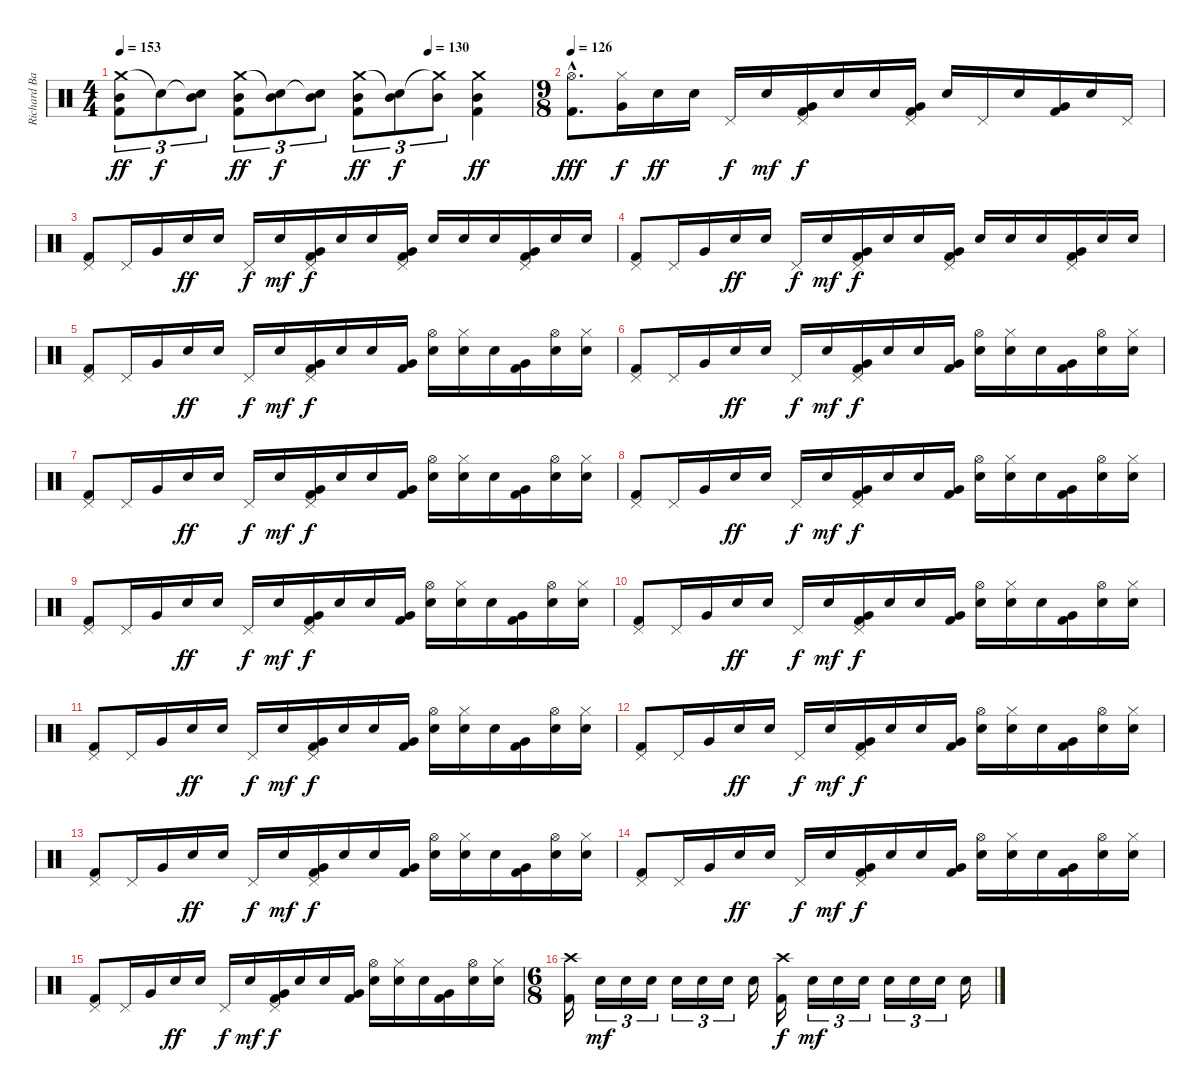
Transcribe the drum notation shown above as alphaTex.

\track ("Richard Bailey" "Richard Ba") {instrument percussion}
\staff {score}
\articulation defaults
\ts (4 4)
\tempo 153
\tempo (130 0.75)
\clef neutral
\ks c
("Crash medium (hit)" "Mid Tom (hit)" "Kick (hit) 2").8{tu (3 2) dy ff} "Snare (hit)"{t}.8{tu (3 2) dy f} ("Snare (hit)"{t} "Mid Tom (hit)").8{tu (3 2)} ("Crash medium (hit)" "Mid Tom (hit)" "Kick (hit) 2").8{tu (3 2) dy ff} ("Snare (hit)"{t} "Mid Tom (hit)").8{tu (3 2) dy f} ("Snare (hit)"{t} "Mid Tom (hit)").8{tu (3 2)} ("Crash medium (hit)" "Mid Tom (hit)" "Kick (hit) 2").8{tu (3 2) dy ff} ("Snare (hit)"{t} "Mid Tom (hit)").8{tu (3 2) dy f} ("Crash medium (hit)"{t} "Mid Tom (hit)").8{tu (3 2)} ("Crash medium (hit)" "Mid Tom (hit)" "Kick (hit) 2").4{dy ff} |
\ts (9 8)
\tempo 126
("Hi-Hat (open)"{hac} "Kick (hit) 2"{hac}).8{d dy fff} ("Hi-Hat (closed)" "Very Low Tom (hit)").16{dy f} "Electric Snare (hit)".16{dy ff} "Electric Snare (hit)".16 "Pedal Hi-Hat (hit)".16{dy f} "Snare (hit) 2".16{dy mf} ("Pedal Hi-Hat (hit)" "Very Low Tom (hit)" "Kick (hit) 2").16{dy f} "Snare (hit) 2".16 "Snare (hit) 2".16 ("Pedal Hi-Hat (hit)" "Very Low Tom (hit)" "Kick (hit) 2").16 "Snare (hit) 2".16 "Pedal Hi-Hat (hit)".16 "Snare (hit) 2".16 ("Very Low Tom (hit)" "Kick (hit) 2").16 "Electric Snare (hit)".16 "Pedal Hi-Hat (hit)".16 |
("Pedal Hi-Hat (hit)" "Kick (hit) 2").8 "Pedal Hi-Hat (hit)".16 "Very Low Tom (hit)".16 "Electric Snare (hit)".16{dy ff} "Electric Snare (hit)".16 "Pedal Hi-Hat (hit)".16{dy f} "Snare (hit) 2".16{dy mf} ("Pedal Hi-Hat (hit)" "Very Low Tom (hit)" "Kick (hit) 2").16{dy f} "Snare (hit) 2".16 "Snare (hit) 2".16 ("Pedal Hi-Hat (hit)" "Very Low Tom (hit)" "Kick (hit) 2").16 "Snare (hit) 2".16 "Snare (hit) 2".16 "Snare (hit) 2".16 ("Pedal Hi-Hat (hit)" "Very Low Tom (hit)" "Kick (hit) 2").16 "Electric Snare (hit)".16 "Electric Snare (hit)".16 |
("Pedal Hi-Hat (hit)" "Kick (hit) 2").8 "Pedal Hi-Hat (hit)".16 "Very Low Tom (hit)".16 "Electric Snare (hit)".16{dy ff} "Electric Snare (hit)".16 "Pedal Hi-Hat (hit)".16{dy f} "Snare (hit) 2".16{dy mf} ("Pedal Hi-Hat (hit)" "Very Low Tom (hit)" "Kick (hit) 2").16{dy f} "Snare (hit) 2".16 "Snare (hit) 2".16 ("Pedal Hi-Hat (hit)" "Very Low Tom (hit)" "Kick (hit) 2").16 "Snare (hit) 2".16 "Snare (hit) 2".16 "Snare (hit) 2".16 ("Pedal Hi-Hat (hit)" "Very Low Tom (hit)" "Kick (hit) 2").16 "Electric Snare (hit)".16 "Electric Snare (hit)".16 |
("Pedal Hi-Hat (hit)" "Kick (hit) 2").8 "Pedal Hi-Hat (hit)".16 "Very Low Tom (hit)".16 "Electric Snare (hit)".16{dy ff} "Electric Snare (hit)".16 "Pedal Hi-Hat (hit)".16{dy f} "Snare (hit) 2".16{dy mf} ("Pedal Hi-Hat (hit)" "Very Low Tom (hit)" "Kick (hit) 2").16{dy f} "Snare (hit) 2".16 "Snare (hit) 2".16 ("Very Low Tom (hit)" "Kick (hit) 2").16 ("Hi-Hat (open)" "Snare (hit) 2").16 ("Hi-Hat (closed)" "Snare (hit) 2").16 "Snare (hit) 2".16 ("Very Low Tom (hit)" "Kick (hit) 2").16 ("Hi-Hat (open)" "Electric Snare (hit)").16 ("Hi-Hat (closed)" "Electric Snare (hit)").16 |
("Pedal Hi-Hat (hit)" "Kick (hit) 2").8 "Pedal Hi-Hat (hit)".16 "Very Low Tom (hit)".16 "Electric Snare (hit)".16{dy ff} "Electric Snare (hit)".16 "Pedal Hi-Hat (hit)".16{dy f} "Snare (hit) 2".16{dy mf} ("Pedal Hi-Hat (hit)" "Very Low Tom (hit)" "Kick (hit) 2").16{dy f} "Snare (hit) 2".16 "Snare (hit) 2".16 ("Very Low Tom (hit)" "Kick (hit) 2").16 ("Hi-Hat (open)" "Snare (hit) 2").16 ("Hi-Hat (closed)" "Snare (hit) 2").16 "Snare (hit) 2".16 ("Very Low Tom (hit)" "Kick (hit) 2").16 ("Hi-Hat (open)" "Electric Snare (hit)").16 ("Hi-Hat (closed)" "Electric Snare (hit)").16 |
("Pedal Hi-Hat (hit)" "Kick (hit) 2").8 "Pedal Hi-Hat (hit)".16 "Very Low Tom (hit)".16 "Electric Snare (hit)".16{dy ff} "Electric Snare (hit)".16 "Pedal Hi-Hat (hit)".16{dy f} "Snare (hit) 2".16{dy mf} ("Pedal Hi-Hat (hit)" "Very Low Tom (hit)" "Kick (hit) 2").16{dy f} "Snare (hit) 2".16 "Snare (hit) 2".16 ("Very Low Tom (hit)" "Kick (hit) 2").16 ("Hi-Hat (open)" "Snare (hit) 2").16 ("Hi-Hat (closed)" "Snare (hit) 2").16 "Snare (hit) 2".16 ("Very Low Tom (hit)" "Kick (hit) 2").16 ("Hi-Hat (open)" "Electric Snare (hit)").16 ("Hi-Hat (closed)" "Electric Snare (hit)").16 |
("Pedal Hi-Hat (hit)" "Kick (hit) 2").8 "Pedal Hi-Hat (hit)".16 "Very Low Tom (hit)".16 "Electric Snare (hit)".16{dy ff} "Electric Snare (hit)".16 "Pedal Hi-Hat (hit)".16{dy f} "Snare (hit) 2".16{dy mf} ("Pedal Hi-Hat (hit)" "Very Low Tom (hit)" "Kick (hit) 2").16{dy f} "Snare (hit) 2".16 "Snare (hit) 2".16 ("Very Low Tom (hit)" "Kick (hit) 2").16 ("Hi-Hat (open)" "Snare (hit) 2").16 ("Hi-Hat (closed)" "Snare (hit) 2").16 "Snare (hit) 2".16 ("Very Low Tom (hit)" "Kick (hit) 2").16 ("Hi-Hat (open)" "Electric Snare (hit)").16 ("Hi-Hat (closed)" "Electric Snare (hit)").16 |
("Pedal Hi-Hat (hit)" "Kick (hit) 2").8 "Pedal Hi-Hat (hit)".16 "Very Low Tom (hit)".16 "Electric Snare (hit)".16{dy ff} "Electric Snare (hit)".16 "Pedal Hi-Hat (hit)".16{dy f} "Snare (hit) 2".16{dy mf} ("Pedal Hi-Hat (hit)" "Very Low Tom (hit)" "Kick (hit) 2").16{dy f} "Snare (hit) 2".16 "Snare (hit) 2".16 ("Very Low Tom (hit)" "Kick (hit) 2").16 ("Hi-Hat (open)" "Snare (hit) 2").16 ("Hi-Hat (closed)" "Snare (hit) 2").16 "Snare (hit) 2".16 ("Very Low Tom (hit)" "Kick (hit) 2").16 ("Hi-Hat (open)" "Electric Snare (hit)").16 ("Hi-Hat (closed)" "Electric Snare (hit)").16 |
("Pedal Hi-Hat (hit)" "Kick (hit) 2").8 "Pedal Hi-Hat (hit)".16 "Very Low Tom (hit)".16 "Electric Snare (hit)".16{dy ff} "Electric Snare (hit)".16 "Pedal Hi-Hat (hit)".16{dy f} "Snare (hit) 2".16{dy mf} ("Pedal Hi-Hat (hit)" "Very Low Tom (hit)" "Kick (hit) 2").16{dy f} "Snare (hit) 2".16 "Snare (hit) 2".16 ("Very Low Tom (hit)" "Kick (hit) 2").16 ("Hi-Hat (open)" "Snare (hit) 2").16 ("Hi-Hat (closed)" "Snare (hit) 2").16 "Snare (hit) 2".16 ("Very Low Tom (hit)" "Kick (hit) 2").16 ("Hi-Hat (open)" "Electric Snare (hit)").16 ("Hi-Hat (closed)" "Electric Snare (hit)").16 |
("Pedal Hi-Hat (hit)" "Kick (hit) 2").8 "Pedal Hi-Hat (hit)".16 "Very Low Tom (hit)".16 "Electric Snare (hit)".16{dy ff} "Electric Snare (hit)".16 "Pedal Hi-Hat (hit)".16{dy f} "Snare (hit) 2".16{dy mf} ("Pedal Hi-Hat (hit)" "Very Low Tom (hit)" "Kick (hit) 2").16{dy f} "Snare (hit) 2".16 "Snare (hit) 2".16 ("Very Low Tom (hit)" "Kick (hit) 2").16 ("Hi-Hat (open)" "Snare (hit) 2").16 ("Hi-Hat (closed)" "Snare (hit) 2").16 "Snare (hit) 2".16 ("Very Low Tom (hit)" "Kick (hit) 2").16 ("Hi-Hat (open)" "Electric Snare (hit)").16 ("Hi-Hat (closed)" "Electric Snare (hit)").16 |
("Pedal Hi-Hat (hit)" "Kick (hit) 2").8 "Pedal Hi-Hat (hit)".16 "Very Low Tom (hit)".16 "Electric Snare (hit)".16{dy ff} "Electric Snare (hit)".16 "Pedal Hi-Hat (hit)".16{dy f} "Snare (hit) 2".16{dy mf} ("Pedal Hi-Hat (hit)" "Very Low Tom (hit)" "Kick (hit) 2").16{dy f} "Snare (hit) 2".16 "Snare (hit) 2".16 ("Very Low Tom (hit)" "Kick (hit) 2").16 ("Hi-Hat (open)" "Snare (hit) 2").16 ("Hi-Hat (closed)" "Snare (hit) 2").16 "Snare (hit) 2".16 ("Very Low Tom (hit)" "Kick (hit) 2").16 ("Hi-Hat (open)" "Electric Snare (hit)").16 ("Hi-Hat (closed)" "Electric Snare (hit)").16 |
("Pedal Hi-Hat (hit)" "Kick (hit) 2").8 "Pedal Hi-Hat (hit)".16 "Very Low Tom (hit)".16 "Electric Snare (hit)".16{dy ff} "Electric Snare (hit)".16 "Pedal Hi-Hat (hit)".16{dy f} "Snare (hit) 2".16{dy mf} ("Pedal Hi-Hat (hit)" "Very Low Tom (hit)" "Kick (hit) 2").16{dy f} "Snare (hit) 2".16 "Snare (hit) 2".16 ("Very Low Tom (hit)" "Kick (hit) 2").16 ("Hi-Hat (open)" "Snare (hit) 2").16 ("Hi-Hat (closed)" "Snare (hit) 2").16 "Snare (hit) 2".16 ("Very Low Tom (hit)" "Kick (hit) 2").16 ("Hi-Hat (open)" "Electric Snare (hit)").16 ("Hi-Hat (closed)" "Electric Snare (hit)").16 |
("Pedal Hi-Hat (hit)" "Kick (hit) 2").8 "Pedal Hi-Hat (hit)".16 "Very Low Tom (hit)".16 "Electric Snare (hit)".16{dy ff} "Electric Snare (hit)".16 "Pedal Hi-Hat (hit)".16{dy f} "Snare (hit) 2".16{dy mf} ("Pedal Hi-Hat (hit)" "Very Low Tom (hit)" "Kick (hit) 2").16{dy f} "Snare (hit) 2".16 "Snare (hit) 2".16 ("Very Low Tom (hit)" "Kick (hit) 2").16 ("Hi-Hat (open)" "Snare (hit) 2").16 ("Hi-Hat (closed)" "Snare (hit) 2").16 "Snare (hit) 2".16 ("Very Low Tom (hit)" "Kick (hit) 2").16 ("Hi-Hat (open)" "Electric Snare (hit)").16 ("Hi-Hat (closed)" "Electric Snare (hit)").16 |
("Pedal Hi-Hat (hit)" "Kick (hit) 2").8 "Pedal Hi-Hat (hit)".16 "Very Low Tom (hit)".16 "Electric Snare (hit)".16{dy ff} "Electric Snare (hit)".16 "Pedal Hi-Hat (hit)".16{dy f} "Snare (hit) 2".16{dy mf} ("Pedal Hi-Hat (hit)" "Very Low Tom (hit)" "Kick (hit) 2").16{dy f} "Snare (hit) 2".16 "Snare (hit) 2".16 ("Very Low Tom (hit)" "Kick (hit) 2").16 ("Hi-Hat (open)" "Snare (hit) 2").16 ("Hi-Hat (closed)" "Snare (hit) 2").16 "Snare (hit) 2".16 ("Very Low Tom (hit)" "Kick (hit) 2").16 ("Hi-Hat (open)" "Electric Snare (hit)").16 ("Hi-Hat (closed)" "Electric Snare (hit)").16 |
\ts (6 8)
("Crash high (hit)" "Kick (hit) 2").16 "Snare (hit) 2".16{tu (3 2) dy mf} "Snare (hit) 2".16{tu (3 2)} "Snare (hit) 2".16{tu (3 2)} "Snare (hit) 2".16{tu (3 2)} "Snare (hit) 2".16{tu (3 2)} "Snare (hit) 2".16{tu (3 2)} "Snare (hit) 2".16 ("Crash high (hit)" "Kick (hit) 2").16{dy f} "Snare (hit) 2".16{tu (3 2) dy mf} "Snare (hit) 2".16{tu (3 2)} "Snare (hit) 2".16{tu (3 2)} "Snare (hit) 2".16{tu (3 2)} "Snare (hit) 2".16{tu (3 2)} "Snare (hit) 2".16{tu (3 2)} "Snare (hit) 2".16
